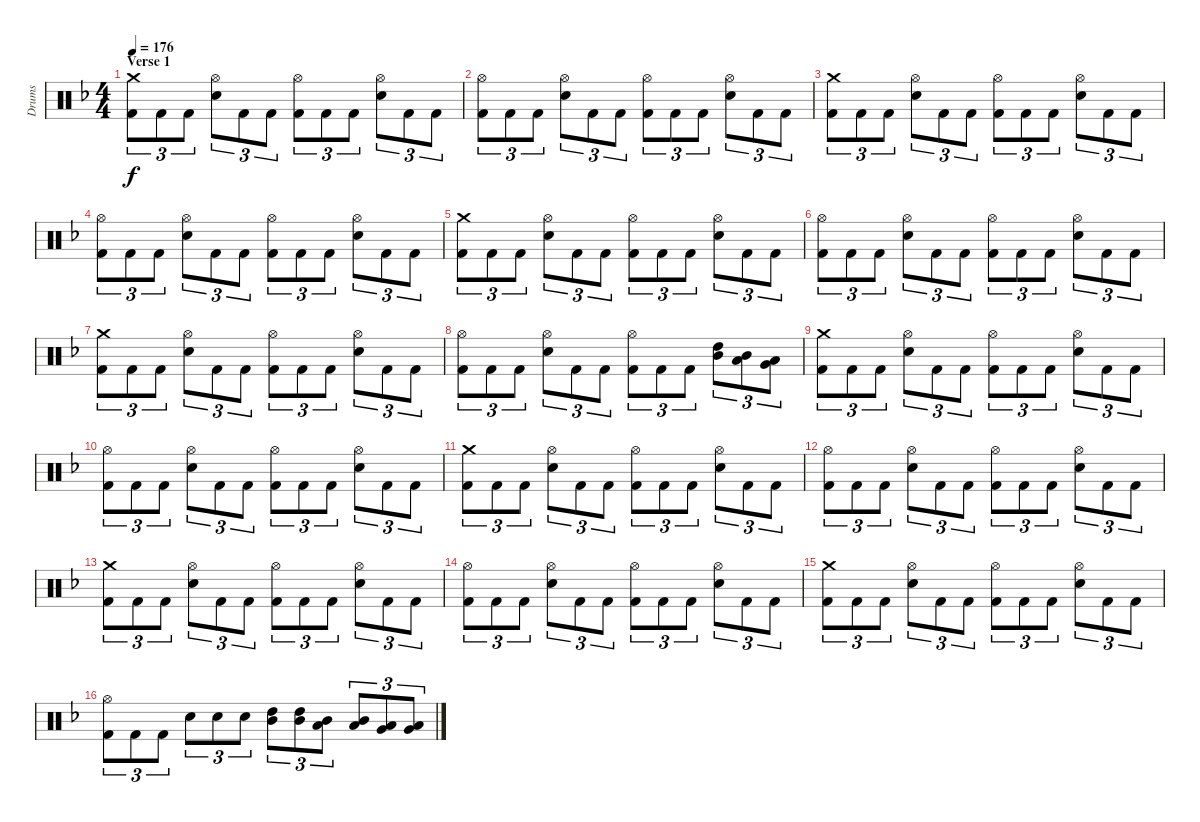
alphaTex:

\track ("Drums" "Drums") {instrument percussion}
\staff {score}
\articulation defaults
\ts (4 4)
\section ("" "Verse 1")
\tempo 176
\clef neutral
\ks f
("Crash medium (hit)" "Kick (hit) 2").8{tu (3 2) dy f} "Kick (hit) 2".8{tu (3 2)} "Kick (hit) 2".8{tu (3 2)} ("Hi-Hat (open)" "Snare (hit) 2").8{tu (3 2)} "Kick (hit) 2".8{tu (3 2)} "Kick (hit) 2".8{tu (3 2)} ("Hi-Hat (open)" "Kick (hit) 2").8{tu (3 2)} "Kick (hit) 2".8{tu (3 2)} "Kick (hit) 2".8{tu (3 2)} ("Hi-Hat (open)" "Snare (hit) 2").8{tu (3 2)} "Kick (hit) 2".8{tu (3 2)} "Kick (hit) 2".8{tu (3 2)} |
("Hi-Hat (open)" "Kick (hit) 2").8{tu (3 2)} "Kick (hit) 2".8{tu (3 2)} "Kick (hit) 2".8{tu (3 2)} ("Hi-Hat (open)" "Snare (hit) 2").8{tu (3 2)} "Kick (hit) 2".8{tu (3 2)} "Kick (hit) 2".8{tu (3 2)} ("Hi-Hat (open)" "Kick (hit) 2").8{tu (3 2)} "Kick (hit) 2".8{tu (3 2)} "Kick (hit) 2".8{tu (3 2)} ("Hi-Hat (open)" "Snare (hit) 2").8{tu (3 2)} "Kick (hit) 2".8{tu (3 2)} "Kick (hit) 2".8{tu (3 2)} |
("Crash medium (hit)" "Kick (hit) 2").8{tu (3 2)} "Kick (hit) 2".8{tu (3 2)} "Kick (hit) 2".8{tu (3 2)} ("Hi-Hat (open)" "Snare (hit) 2").8{tu (3 2)} "Kick (hit) 2".8{tu (3 2)} "Kick (hit) 2".8{tu (3 2)} ("Hi-Hat (open)" "Kick (hit) 2").8{tu (3 2)} "Kick (hit) 2".8{tu (3 2)} "Kick (hit) 2".8{tu (3 2)} ("Hi-Hat (open)" "Snare (hit) 2").8{tu (3 2)} "Kick (hit) 2".8{tu (3 2)} "Kick (hit) 2".8{tu (3 2)} |
("Hi-Hat (open)" "Kick (hit) 2").8{tu (3 2)} "Kick (hit) 2".8{tu (3 2)} "Kick (hit) 2".8{tu (3 2)} ("Hi-Hat (open)" "Snare (hit) 2").8{tu (3 2)} "Kick (hit) 2".8{tu (3 2)} "Kick (hit) 2".8{tu (3 2)} ("Hi-Hat (open)" "Kick (hit) 2").8{tu (3 2)} "Kick (hit) 2".8{tu (3 2)} "Kick (hit) 2".8{tu (3 2)} ("Hi-Hat (open)" "Snare (hit) 2").8{tu (3 2)} "Kick (hit) 2".8{tu (3 2)} "Kick (hit) 2".8{tu (3 2)} |
("Crash medium (hit)" "Kick (hit) 2").8{tu (3 2)} "Kick (hit) 2".8{tu (3 2)} "Kick (hit) 2".8{tu (3 2)} ("Hi-Hat (open)" "Snare (hit) 2").8{tu (3 2)} "Kick (hit) 2".8{tu (3 2)} "Kick (hit) 2".8{tu (3 2)} ("Hi-Hat (open)" "Kick (hit) 2").8{tu (3 2)} "Kick (hit) 2".8{tu (3 2)} "Kick (hit) 2".8{tu (3 2)} ("Hi-Hat (open)" "Snare (hit) 2").8{tu (3 2)} "Kick (hit) 2".8{tu (3 2)} "Kick (hit) 2".8{tu (3 2)} |
("Hi-Hat (open)" "Kick (hit) 2").8{tu (3 2)} "Kick (hit) 2".8{tu (3 2)} "Kick (hit) 2".8{tu (3 2)} ("Hi-Hat (open)" "Snare (hit) 2").8{tu (3 2)} "Kick (hit) 2".8{tu (3 2)} "Kick (hit) 2".8{tu (3 2)} ("Hi-Hat (open)" "Kick (hit) 2").8{tu (3 2)} "Kick (hit) 2".8{tu (3 2)} "Kick (hit) 2".8{tu (3 2)} ("Hi-Hat (open)" "Snare (hit) 2").8{tu (3 2)} "Kick (hit) 2".8{tu (3 2)} "Kick (hit) 2".8{tu (3 2)} |
("Crash medium (hit)" "Kick (hit) 2").8{tu (3 2)} "Kick (hit) 2".8{tu (3 2)} "Kick (hit) 2".8{tu (3 2)} ("Hi-Hat (open)" "Snare (hit) 2").8{tu (3 2)} "Kick (hit) 2".8{tu (3 2)} "Kick (hit) 2".8{tu (3 2)} ("Hi-Hat (open)" "Kick (hit) 2").8{tu (3 2)} "Kick (hit) 2".8{tu (3 2)} "Kick (hit) 2".8{tu (3 2)} ("Hi-Hat (open)" "Snare (hit) 2").8{tu (3 2)} "Kick (hit) 2".8{tu (3 2)} "Kick (hit) 2".8{tu (3 2)} |
("Hi-Hat (open)" "Kick (hit) 2").8{tu (3 2)} "Kick (hit) 2".8{tu (3 2)} "Kick (hit) 2".8{tu (3 2)} ("Hi-Hat (open)" "Snare (hit) 2").8{tu (3 2)} "Kick (hit) 2".8{tu (3 2)} "Kick (hit) 2".8{tu (3 2)} ("Hi-Hat (open)" "Kick (hit) 2").8{tu (3 2)} "Kick (hit) 2".8{tu (3 2)} "Kick (hit) 2".8{tu (3 2)} ("High Tom (hit)" "Mid Tom (hit)").8{tu (3 2)} ("Mid Tom (hit)" "Low Tom (hit)").8{tu (3 2)} ("Low Tom (hit)" "Very Low Tom (hit)").8{tu (3 2)} |
("Crash medium (hit)" "Kick (hit) 2").8{tu (3 2)} "Kick (hit) 2".8{tu (3 2)} "Kick (hit) 2".8{tu (3 2)} ("Hi-Hat (open)" "Snare (hit) 2").8{tu (3 2)} "Kick (hit) 2".8{tu (3 2)} "Kick (hit) 2".8{tu (3 2)} ("Hi-Hat (open)" "Kick (hit) 2").8{tu (3 2)} "Kick (hit) 2".8{tu (3 2)} "Kick (hit) 2".8{tu (3 2)} ("Hi-Hat (open)" "Snare (hit) 2").8{tu (3 2)} "Kick (hit) 2".8{tu (3 2)} "Kick (hit) 2".8{tu (3 2)} |
("Hi-Hat (open)" "Kick (hit) 2").8{tu (3 2)} "Kick (hit) 2".8{tu (3 2)} "Kick (hit) 2".8{tu (3 2)} ("Hi-Hat (open)" "Snare (hit) 2").8{tu (3 2)} "Kick (hit) 2".8{tu (3 2)} "Kick (hit) 2".8{tu (3 2)} ("Hi-Hat (open)" "Kick (hit) 2").8{tu (3 2)} "Kick (hit) 2".8{tu (3 2)} "Kick (hit) 2".8{tu (3 2)} ("Hi-Hat (open)" "Snare (hit) 2").8{tu (3 2)} "Kick (hit) 2".8{tu (3 2)} "Kick (hit) 2".8{tu (3 2)} |
("Crash medium (hit)" "Kick (hit) 2").8{tu (3 2)} "Kick (hit) 2".8{tu (3 2)} "Kick (hit) 2".8{tu (3 2)} ("Hi-Hat (open)" "Snare (hit) 2").8{tu (3 2)} "Kick (hit) 2".8{tu (3 2)} "Kick (hit) 2".8{tu (3 2)} ("Hi-Hat (open)" "Kick (hit) 2").8{tu (3 2)} "Kick (hit) 2".8{tu (3 2)} "Kick (hit) 2".8{tu (3 2)} ("Hi-Hat (open)" "Snare (hit) 2").8{tu (3 2)} "Kick (hit) 2".8{tu (3 2)} "Kick (hit) 2".8{tu (3 2)} |
("Hi-Hat (open)" "Kick (hit) 2").8{tu (3 2)} "Kick (hit) 2".8{tu (3 2)} "Kick (hit) 2".8{tu (3 2)} ("Hi-Hat (open)" "Snare (hit) 2").8{tu (3 2)} "Kick (hit) 2".8{tu (3 2)} "Kick (hit) 2".8{tu (3 2)} ("Hi-Hat (open)" "Kick (hit) 2").8{tu (3 2)} "Kick (hit) 2".8{tu (3 2)} "Kick (hit) 2".8{tu (3 2)} ("Hi-Hat (open)" "Snare (hit) 2").8{tu (3 2)} "Kick (hit) 2".8{tu (3 2)} "Kick (hit) 2".8{tu (3 2)} |
("Crash medium (hit)" "Kick (hit) 2").8{tu (3 2)} "Kick (hit) 2".8{tu (3 2)} "Kick (hit) 2".8{tu (3 2)} ("Hi-Hat (open)" "Snare (hit) 2").8{tu (3 2)} "Kick (hit) 2".8{tu (3 2)} "Kick (hit) 2".8{tu (3 2)} ("Hi-Hat (open)" "Kick (hit) 2").8{tu (3 2)} "Kick (hit) 2".8{tu (3 2)} "Kick (hit) 2".8{tu (3 2)} ("Hi-Hat (open)" "Snare (hit) 2").8{tu (3 2)} "Kick (hit) 2".8{tu (3 2)} "Kick (hit) 2".8{tu (3 2)} |
("Hi-Hat (open)" "Kick (hit) 2").8{tu (3 2)} "Kick (hit) 2".8{tu (3 2)} "Kick (hit) 2".8{tu (3 2)} ("Hi-Hat (open)" "Snare (hit) 2").8{tu (3 2)} "Kick (hit) 2".8{tu (3 2)} "Kick (hit) 2".8{tu (3 2)} ("Hi-Hat (open)" "Kick (hit) 2").8{tu (3 2)} "Kick (hit) 2".8{tu (3 2)} "Kick (hit) 2".8{tu (3 2)} ("Hi-Hat (open)" "Snare (hit) 2").8{tu (3 2)} "Kick (hit) 2".8{tu (3 2)} "Kick (hit) 2".8{tu (3 2)} |
("Crash medium (hit)" "Kick (hit) 2").8{tu (3 2)} "Kick (hit) 2".8{tu (3 2)} "Kick (hit) 2".8{tu (3 2)} ("Hi-Hat (open)" "Snare (hit) 2").8{tu (3 2)} "Kick (hit) 2".8{tu (3 2)} "Kick (hit) 2".8{tu (3 2)} ("Hi-Hat (open)" "Kick (hit) 2").8{tu (3 2)} "Kick (hit) 2".8{tu (3 2)} "Kick (hit) 2".8{tu (3 2)} ("Hi-Hat (open)" "Snare (hit) 2").8{tu (3 2)} "Kick (hit) 2".8{tu (3 2)} "Kick (hit) 2".8{tu (3 2)} |
("Hi-Hat (open)" "Kick (hit) 2").8{tu (3 2)} "Kick (hit) 2".8{tu (3 2)} "Kick (hit) 2".8{tu (3 2)} "Snare (hit) 2".8{tu (3 2)} "Snare (hit) 2".8{tu (3 2)} "Snare (hit) 2".8{tu (3 2)} ("High Tom (hit)" "Mid Tom (hit)").8{tu (3 2)} ("High Tom (hit)" "Mid Tom (hit)").8{tu (3 2)} ("Mid Tom (hit)" "Low Tom (hit)").8{tu (3 2)} ("Mid Tom (hit)" "Low Tom (hit)").8{tu (3 2)} ("Low Tom (hit)" "Very Low Tom (hit)").8{tu (3 2)} ("Low Tom (hit)" "Very Low Tom (hit)").8{tu (3 2)}
